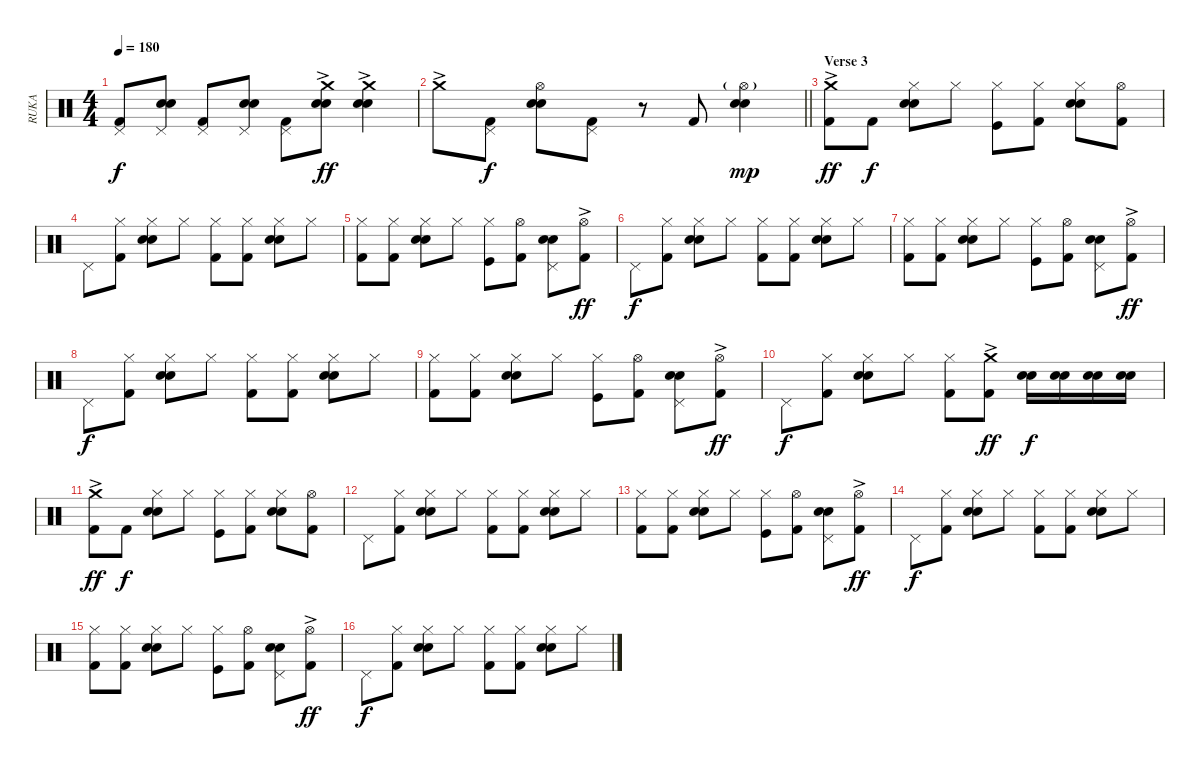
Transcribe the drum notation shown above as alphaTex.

\track ("RUKA" "RUKA") {instrument percussion}
\staff {score}
\articulation defaults
\ts (4 4)
\tempo 180
\clef neutral
\ks c
("Pedal Hi-Hat (hit)" "Kick (hit) 2").8{dy f} ("Pedal Hi-Hat (hit)" "Snare (hit) 2" "Electric Snare (hit)").8 ("Pedal Hi-Hat (hit)" "Kick (hit) 2").8 ("Pedal Hi-Hat (hit)" "Snare (hit) 2" "Electric Snare (hit)").8 ("Pedal Hi-Hat (hit)" "Kick (hit) 2").8 ("Crash medium (hit)"{ac} "Snare (hit) 2" "Electric Snare (hit)").8{dy ff} ("Crash medium (hit)"{ac} "Snare (hit) 2" "Electric Snare (hit)").4 |
\barLineRight lightlight "Crash medium (hit)"{ac}.8
("Pedal Hi-Hat (hit)" "Kick (hit) 2").8{dy f} ("Hi-Hat (open)" "Snare (hit) 2" "Electric Snare (hit)").8 ("Pedal Hi-Hat (hit)" "Kick (hit) 2").8 r.8 "Kick (hit) 2".8 ("Hi-Hat (open)"{g} "Snare (hit) 2" "Electric Snare (hit)").4{dy mp} |
\section ("" "Verse 3")
("Crash medium (hit)"{ac} "Kick (hit) 2").8{dy ff} "Kick (hit) 2".8{dy f} ("Hi-Hat (closed)" "Snare (hit) 2" "Electric Snare (hit)").8 "Hi-Hat (closed)".8 ("Hi-Hat (closed)" "Kick (hit)").8 ("Hi-Hat (closed)" "Kick (hit) 2").8 ("Hi-Hat (closed)" "Snare (hit) 2" "Electric Snare (hit)").8 ("Hi-Hat (open)" "Kick (hit) 2").8 |
"Pedal Hi-Hat (hit)".8 ("Hi-Hat (closed)" "Kick (hit) 2").8 ("Hi-Hat (closed)" "Snare (hit) 2" "Electric Snare (hit)").8 "Hi-Hat (closed)".8 ("Hi-Hat (closed)" "Kick (hit) 2").8 ("Hi-Hat (closed)" "Kick (hit) 2").8 ("Hi-Hat (closed)" "Snare (hit) 2" "Electric Snare (hit)").8 "Hi-Hat (closed)".8 |
("Hi-Hat (closed)" "Kick (hit) 2").8 ("Hi-Hat (closed)" "Kick (hit) 2").8 ("Hi-Hat (closed)" "Snare (hit) 2" "Electric Snare (hit)").8 "Hi-Hat (closed)".8 ("Hi-Hat (closed)" "Kick (hit)").8 ("Hi-Hat (open)" "Kick (hit) 2").8 ("Pedal Hi-Hat (hit)" "Snare (hit) 2" "Electric Snare (hit)").8 ("Hi-Hat (open)"{ac} "Kick (hit) 2").8{dy ff} |
"Pedal Hi-Hat (hit)".8{dy f} ("Hi-Hat (closed)" "Kick (hit) 2").8 ("Hi-Hat (closed)" "Snare (hit) 2" "Electric Snare (hit)").8 "Hi-Hat (closed)".8 ("Hi-Hat (closed)" "Kick (hit) 2").8 ("Hi-Hat (closed)" "Kick (hit) 2").8 ("Hi-Hat (closed)" "Snare (hit) 2" "Electric Snare (hit)").8 "Hi-Hat (closed)".8 |
("Hi-Hat (closed)" "Kick (hit) 2").8 ("Hi-Hat (closed)" "Kick (hit) 2").8 ("Hi-Hat (closed)" "Snare (hit) 2" "Electric Snare (hit)").8 "Hi-Hat (closed)".8 ("Hi-Hat (closed)" "Kick (hit)").8 ("Hi-Hat (open)" "Kick (hit) 2").8 ("Pedal Hi-Hat (hit)" "Snare (hit) 2" "Electric Snare (hit)").8 ("Hi-Hat (open)"{ac} "Kick (hit) 2").8{dy ff} |
"Pedal Hi-Hat (hit)".8{dy f} ("Hi-Hat (closed)" "Kick (hit) 2").8 ("Hi-Hat (closed)" "Snare (hit) 2" "Electric Snare (hit)").8 "Hi-Hat (closed)".8 ("Hi-Hat (closed)" "Kick (hit) 2").8 ("Hi-Hat (closed)" "Kick (hit) 2").8 ("Hi-Hat (closed)" "Snare (hit) 2" "Electric Snare (hit)").8 "Hi-Hat (closed)".8 |
("Hi-Hat (closed)" "Kick (hit) 2").8 ("Hi-Hat (closed)" "Kick (hit) 2").8 ("Hi-Hat (closed)" "Snare (hit) 2" "Electric Snare (hit)").8 "Hi-Hat (closed)".8 ("Hi-Hat (closed)" "Kick (hit)").8 ("Hi-Hat (open)" "Kick (hit) 2").8 ("Pedal Hi-Hat (hit)" "Snare (hit) 2" "Electric Snare (hit)").8 ("Hi-Hat (open)"{ac} "Kick (hit) 2").8{dy ff} |
"Pedal Hi-Hat (hit)".8{dy f} ("Hi-Hat (closed)" "Kick (hit) 2").8 ("Hi-Hat (closed)" "Snare (hit) 2" "Electric Snare (hit)").8 "Hi-Hat (closed)".8 ("Hi-Hat (closed)" "Kick (hit) 2").8 ("Crash medium (hit)"{ac} "Kick (hit) 2").8{dy ff} ("Snare (hit) 2" "Electric Snare (hit)").16{dy f} ("Snare (hit) 2" "Electric Snare (hit)").16 ("Snare (hit) 2" "Electric Snare (hit)").16 ("Snare (hit) 2" "Electric Snare (hit)").16 |
("Crash medium (hit)"{ac} "Kick (hit) 2").8{dy ff} "Kick (hit) 2".8{dy f} ("Hi-Hat (closed)" "Snare (hit) 2" "Electric Snare (hit)").8 "Hi-Hat (closed)".8 ("Hi-Hat (closed)" "Kick (hit)").8 ("Hi-Hat (closed)" "Kick (hit) 2").8 ("Hi-Hat (closed)" "Snare (hit) 2" "Electric Snare (hit)").8 ("Hi-Hat (open)" "Kick (hit) 2").8 |
"Pedal Hi-Hat (hit)".8 ("Hi-Hat (closed)" "Kick (hit) 2").8 ("Hi-Hat (closed)" "Snare (hit) 2" "Electric Snare (hit)").8 "Hi-Hat (closed)".8 ("Hi-Hat (closed)" "Kick (hit) 2").8 ("Hi-Hat (closed)" "Kick (hit) 2").8 ("Hi-Hat (closed)" "Snare (hit) 2" "Electric Snare (hit)").8 "Hi-Hat (closed)".8 |
("Hi-Hat (closed)" "Kick (hit) 2").8 ("Hi-Hat (closed)" "Kick (hit) 2").8 ("Hi-Hat (closed)" "Snare (hit) 2" "Electric Snare (hit)").8 "Hi-Hat (closed)".8 ("Hi-Hat (closed)" "Kick (hit)").8 ("Hi-Hat (open)" "Kick (hit) 2").8 ("Pedal Hi-Hat (hit)" "Snare (hit) 2" "Electric Snare (hit)").8 ("Hi-Hat (open)"{ac} "Kick (hit) 2").8{dy ff} |
"Pedal Hi-Hat (hit)".8{dy f} ("Hi-Hat (closed)" "Kick (hit) 2").8 ("Hi-Hat (closed)" "Snare (hit) 2" "Electric Snare (hit)").8 "Hi-Hat (closed)".8 ("Hi-Hat (closed)" "Kick (hit) 2").8 ("Hi-Hat (closed)" "Kick (hit) 2").8 ("Hi-Hat (closed)" "Snare (hit) 2" "Electric Snare (hit)").8 "Hi-Hat (closed)".8 |
("Hi-Hat (closed)" "Kick (hit) 2").8 ("Hi-Hat (closed)" "Kick (hit) 2").8 ("Hi-Hat (closed)" "Snare (hit) 2" "Electric Snare (hit)").8 "Hi-Hat (closed)".8 ("Hi-Hat (closed)" "Kick (hit)").8 ("Hi-Hat (open)" "Kick (hit) 2").8 ("Pedal Hi-Hat (hit)" "Snare (hit) 2" "Electric Snare (hit)").8 ("Hi-Hat (open)"{ac} "Kick (hit) 2").8{dy ff} |
"Pedal Hi-Hat (hit)".8{dy f} ("Hi-Hat (closed)" "Kick (hit) 2").8 ("Hi-Hat (closed)" "Snare (hit) 2" "Electric Snare (hit)").8 "Hi-Hat (closed)".8 ("Hi-Hat (closed)" "Kick (hit) 2").8 ("Hi-Hat (closed)" "Kick (hit) 2").8 ("Hi-Hat (closed)" "Snare (hit) 2" "Electric Snare (hit)").8 "Hi-Hat (closed)".8
